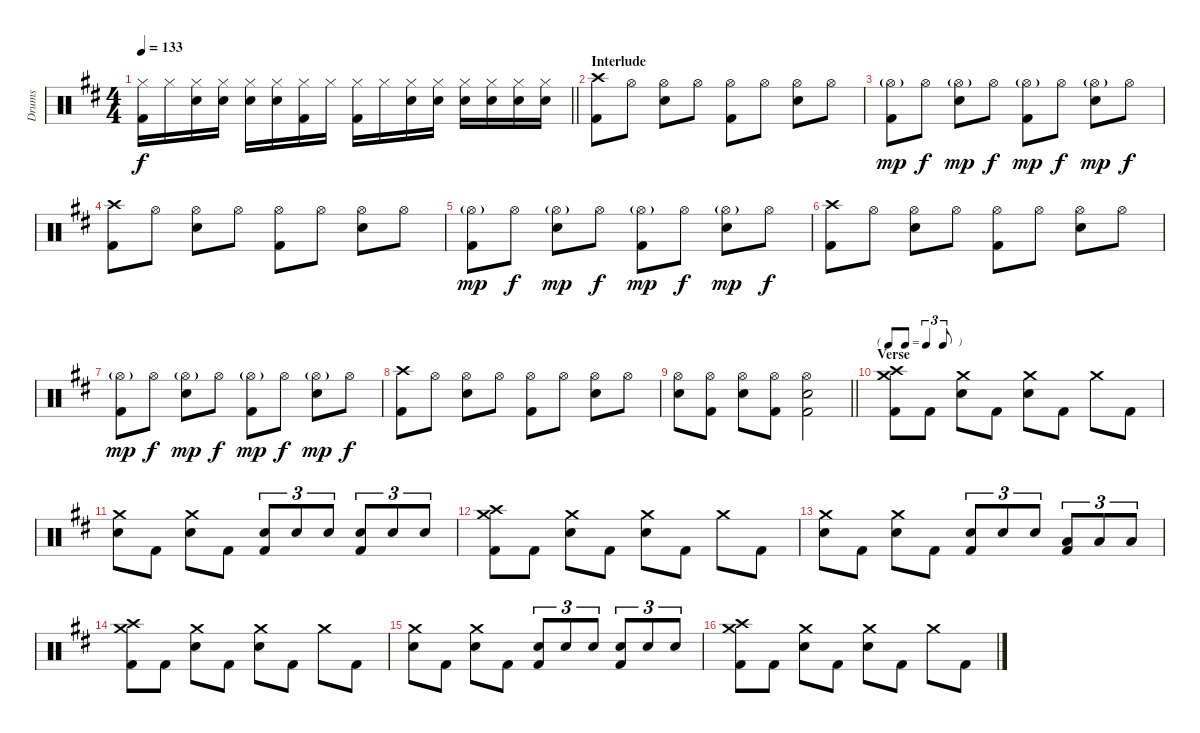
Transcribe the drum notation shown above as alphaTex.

\track ("Drums" "Drums") {instrument percussion}
\staff {score}
\articulation defaults
\ts (4 4)
\tempo 133
\clef neutral
\barLineRight lightlight
\ks d
("Hi-Hat (closed)" "Kick (hit) 2").16{dy f} "Hi-Hat (closed)".16 ("Hi-Hat (closed)" "Snare (hit) 2").16 ("Hi-Hat (closed)" "Snare (hit) 2").16 ("Hi-Hat (closed)" "Snare (hit) 2").16 ("Hi-Hat (closed)" "Snare (hit) 2").16 ("Hi-Hat (closed)" "Kick (hit) 2").16 "Hi-Hat (closed)".16 ("Hi-Hat (closed)" "Kick (hit) 2").16 "Hi-Hat (closed)".16 ("Hi-Hat (closed)" "Snare (hit) 2").16 ("Hi-Hat (closed)" "Snare (hit) 2").16 ("Hi-Hat (closed)" "Snare (hit) 2").16 ("Hi-Hat (closed)" "Snare (hit) 2").16 ("Hi-Hat (closed)" "Snare (hit) 2").16 ("Hi-Hat (closed)" "Snare (hit) 2").16 |
\section ("" "Interlude")
("Crash high (hit)" "Kick (hit) 2").8 "Hi-Hat (open)".8 ("Hi-Hat (open)" "Snare (hit) 2").8 "Hi-Hat (open)".8 ("Hi-Hat (open)" "Kick (hit) 2").8 "Hi-Hat (open)".8 ("Hi-Hat (open)" "Snare (hit) 2").8 "Hi-Hat (open)".8 |
("Hi-Hat (open)"{g} "Kick (hit) 2").8{dy mp} "Hi-Hat (open)".8{dy f} ("Hi-Hat (open)"{g} "Snare (hit) 2").8{dy mp} "Hi-Hat (open)".8{dy f} ("Hi-Hat (open)"{g} "Kick (hit) 2").8{dy mp} "Hi-Hat (open)".8{dy f} ("Hi-Hat (open)"{g} "Snare (hit) 2").8{dy mp} "Hi-Hat (open)".8{dy f} |
("Crash high (hit)" "Kick (hit) 2").8 "Hi-Hat (open)".8 ("Hi-Hat (open)" "Snare (hit) 2").8 "Hi-Hat (open)".8 ("Hi-Hat (open)" "Kick (hit) 2").8 "Hi-Hat (open)".8 ("Hi-Hat (open)" "Snare (hit) 2").8 "Hi-Hat (open)".8 |
("Hi-Hat (open)"{g} "Kick (hit) 2").8{dy mp} "Hi-Hat (open)".8{dy f} ("Hi-Hat (open)"{g} "Snare (hit) 2").8{dy mp} "Hi-Hat (open)".8{dy f} ("Hi-Hat (open)"{g} "Kick (hit) 2").8{dy mp} "Hi-Hat (open)".8{dy f} ("Hi-Hat (open)"{g} "Snare (hit) 2").8{dy mp} "Hi-Hat (open)".8{dy f} |
("Crash high (hit)" "Kick (hit) 2").8 "Hi-Hat (open)".8 ("Hi-Hat (open)" "Snare (hit) 2").8 "Hi-Hat (open)".8 ("Hi-Hat (open)" "Kick (hit) 2").8 "Hi-Hat (open)".8 ("Hi-Hat (open)" "Snare (hit) 2").8 "Hi-Hat (open)".8 |
("Hi-Hat (open)"{g} "Kick (hit) 2").8{dy mp} "Hi-Hat (open)".8{dy f} ("Hi-Hat (open)"{g} "Snare (hit) 2").8{dy mp} "Hi-Hat (open)".8{dy f} ("Hi-Hat (open)"{g} "Kick (hit) 2").8{dy mp} "Hi-Hat (open)".8{dy f} ("Hi-Hat (open)"{g} "Snare (hit) 2").8{dy mp} "Hi-Hat (open)".8{dy f} |
("Crash high (hit)" "Kick (hit) 2").8 "Hi-Hat (open)".8 ("Hi-Hat (open)" "Snare (hit) 2").8 "Hi-Hat (open)".8 ("Hi-Hat (open)" "Kick (hit) 2").8 "Hi-Hat (open)".8 ("Hi-Hat (open)" "Snare (hit) 2").8 "Hi-Hat (open)".8 |
\barLineRight lightlight
("Hi-Hat (open)" "Snare (hit) 2").8 ("Hi-Hat (open)" "Kick (hit) 2").8 ("Hi-Hat (open)" "Snare (hit) 2").8 ("Hi-Hat (open)" "Kick (hit) 2").8 ("Hi-Hat (open)" "Snare (hit) 2" "Kick (hit) 2").2 |
\tf triplet8th
\section ("" "Verse")
("Crash high (hit)" "Crash medium (hit)" "Kick (hit) 2").8 "Kick (hit) 2".8 ("Crash medium (hit)" "Snare (hit) 2").8 "Kick (hit) 2".8 ("Crash medium (hit)" "Snare (hit) 2").8 "Kick (hit) 2".8 "Crash medium (hit)".8 "Kick (hit) 2".8 |
("Crash medium (hit)" "Snare (hit) 2").8 "Kick (hit) 2".8 ("Crash medium (hit)" "Snare (hit) 2").8 "Kick (hit) 2".8 ("Snare (hit) 2" "Kick (hit) 2").8{tu (3 2)} "Snare (hit) 2".8{tu (3 2)} "Snare (hit) 2".8{tu (3 2)} ("Snare (hit) 2" "Kick (hit) 2").8{tu (3 2)} "Snare (hit) 2".8{tu (3 2)} "Snare (hit) 2".8{tu (3 2)} |
("Crash high (hit)" "Crash medium (hit)" "Kick (hit) 2").8 "Kick (hit) 2".8 ("Crash medium (hit)" "Snare (hit) 2").8 "Kick (hit) 2".8 ("Crash medium (hit)" "Snare (hit) 2").8 "Kick (hit) 2".8 "Crash medium (hit)".8 "Kick (hit) 2".8 |
("Crash medium (hit)" "Snare (hit) 2").8 "Kick (hit) 2".8 ("Crash medium (hit)" "Snare (hit) 2").8 "Kick (hit) 2".8 ("Snare (hit) 2" "Kick (hit) 2").8{tu (3 2)} "Snare (hit) 2".8{tu (3 2)} "Snare (hit) 2".8{tu (3 2)} ("Low Tom (hit)" "Kick (hit) 2").8{tu (3 2)} "Low Tom (hit)".8{tu (3 2)} "Low Tom (hit)".8{tu (3 2)} |
("Crash high (hit)" "Crash medium (hit)" "Kick (hit) 2").8 "Kick (hit) 2".8 ("Crash medium (hit)" "Snare (hit) 2").8 "Kick (hit) 2".8 ("Crash medium (hit)" "Snare (hit) 2").8 "Kick (hit) 2".8 "Crash medium (hit)".8 "Kick (hit) 2".8 |
("Crash medium (hit)" "Snare (hit) 2").8 "Kick (hit) 2".8 ("Crash medium (hit)" "Snare (hit) 2").8 "Kick (hit) 2".8 ("Snare (hit) 2" "Kick (hit) 2").8{tu (3 2)} "Snare (hit) 2".8{tu (3 2)} "Snare (hit) 2".8{tu (3 2)} ("Snare (hit) 2" "Kick (hit) 2").8{tu (3 2)} "Snare (hit) 2".8{tu (3 2)} "Snare (hit) 2".8{tu (3 2)} |
("Crash high (hit)" "Crash medium (hit)" "Kick (hit) 2").8 "Kick (hit) 2".8 ("Crash medium (hit)" "Snare (hit) 2").8 "Kick (hit) 2".8 ("Crash medium (hit)" "Snare (hit) 2").8 "Kick (hit) 2".8 "Crash medium (hit)".8 "Kick (hit) 2".8
